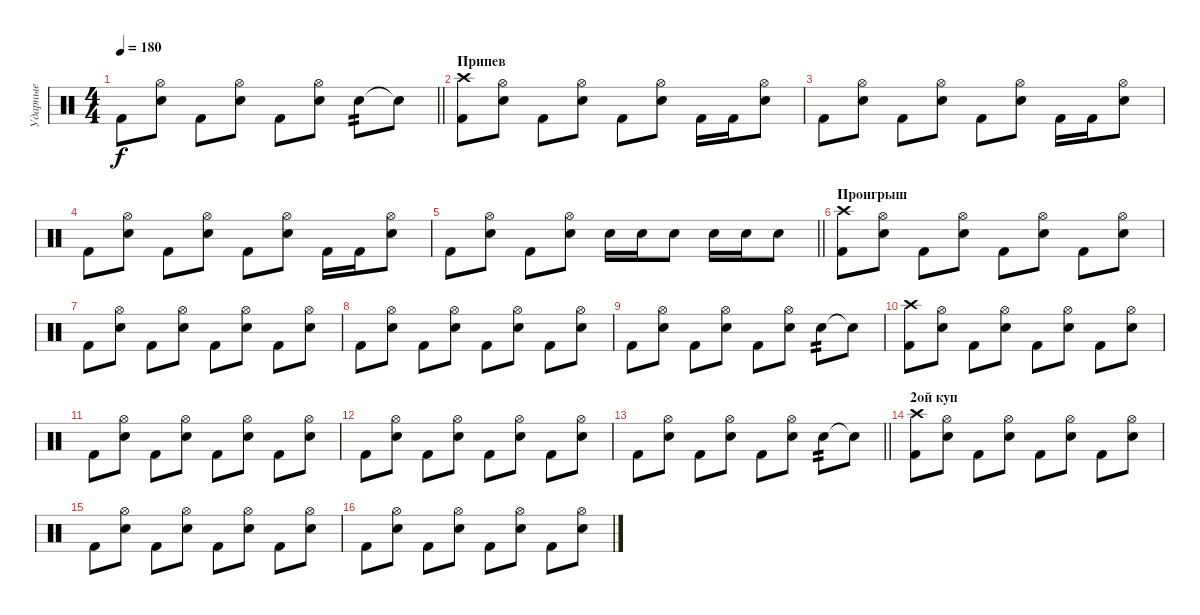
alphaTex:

\track ("Ударные" "Ударные") {instrument percussion}
\staff {score}
\articulation defaults
\ts (4 4)
\tempo 180
\clef neutral
\barLineRight lightlight
\ks c "Kick (hit) 2".8{dy f}
("Hi-Hat (open)" "Electric Snare (hit)").8 "Kick (hit) 2".8 ("Hi-Hat (open)" "Electric Snare (hit)").8 "Kick (hit) 2".8 ("Hi-Hat (open)" "Electric Snare (hit)").8 "Electric Snare (hit)".8{tp 2} "Electric Snare (hit)"{t}.8 |
\section ("" "Припев")
("Crash high (hit)" "Kick (hit) 2").8 ("Hi-Hat (open)" "Electric Snare (hit)").8 "Kick (hit) 2".8 ("Hi-Hat (open)" "Electric Snare (hit)").8 "Kick (hit) 2".8 ("Hi-Hat (open)" "Electric Snare (hit)").8 "Kick (hit) 2".16 "Kick (hit) 2".16 ("Hi-Hat (open)" "Electric Snare (hit)").8 |
"Kick (hit) 2".8 ("Hi-Hat (open)" "Electric Snare (hit)").8 "Kick (hit) 2".8 ("Hi-Hat (open)" "Electric Snare (hit)").8 "Kick (hit) 2".8 ("Hi-Hat (open)" "Electric Snare (hit)").8 "Kick (hit) 2".16 "Kick (hit) 2".16 ("Hi-Hat (open)" "Electric Snare (hit)").8 |
"Kick (hit) 2".8 ("Hi-Hat (open)" "Electric Snare (hit)").8 "Kick (hit) 2".8 ("Hi-Hat (open)" "Electric Snare (hit)").8 "Kick (hit) 2".8 ("Hi-Hat (open)" "Electric Snare (hit)").8 "Kick (hit) 2".16 "Kick (hit) 2".16 ("Hi-Hat (open)" "Electric Snare (hit)").8 |
\barLineRight lightlight "Kick (hit) 2".8
("Hi-Hat (open)" "Electric Snare (hit)").8 "Kick (hit) 2".8 ("Hi-Hat (open)" "Electric Snare (hit)").8 "Electric Snare (hit)".16 "Electric Snare (hit)".16 "Electric Snare (hit)".8 "Electric Snare (hit)".16 "Electric Snare (hit)".16 "Electric Snare (hit)".8 |
\section ("" "Проигрыш")
("Crash high (hit)" "Kick (hit) 2").8 ("Hi-Hat (open)" "Electric Snare (hit)").8 "Kick (hit) 2".8 ("Hi-Hat (open)" "Electric Snare (hit)").8 "Kick (hit) 2".8 ("Hi-Hat (open)" "Electric Snare (hit)").8 "Kick (hit) 2".8 ("Hi-Hat (open)" "Electric Snare (hit)").8 |
"Kick (hit) 2".8 ("Hi-Hat (open)" "Electric Snare (hit)").8 "Kick (hit) 2".8 ("Hi-Hat (open)" "Electric Snare (hit)").8 "Kick (hit) 2".8 ("Hi-Hat (open)" "Electric Snare (hit)").8 "Kick (hit) 2".8 ("Hi-Hat (open)" "Electric Snare (hit)").8 |
"Kick (hit) 2".8 ("Hi-Hat (open)" "Electric Snare (hit)").8 "Kick (hit) 2".8 ("Hi-Hat (open)" "Electric Snare (hit)").8 "Kick (hit) 2".8 ("Hi-Hat (open)" "Electric Snare (hit)").8 "Kick (hit) 2".8 ("Hi-Hat (open)" "Electric Snare (hit)").8 |
"Kick (hit) 2".8 ("Hi-Hat (open)" "Electric Snare (hit)").8 "Kick (hit) 2".8 ("Hi-Hat (open)" "Electric Snare (hit)").8 "Kick (hit) 2".8 ("Hi-Hat (open)" "Electric Snare (hit)").8 "Electric Snare (hit)".8{tp 2} "Electric Snare (hit)"{t}.8 |
("Crash high (hit)" "Kick (hit) 2").8 ("Hi-Hat (open)" "Electric Snare (hit)").8 "Kick (hit) 2".8 ("Hi-Hat (open)" "Electric Snare (hit)").8 "Kick (hit) 2".8 ("Hi-Hat (open)" "Electric Snare (hit)").8 "Kick (hit) 2".8 ("Hi-Hat (open)" "Electric Snare (hit)").8 |
"Kick (hit) 2".8 ("Hi-Hat (open)" "Electric Snare (hit)").8 "Kick (hit) 2".8 ("Hi-Hat (open)" "Electric Snare (hit)").8 "Kick (hit) 2".8 ("Hi-Hat (open)" "Electric Snare (hit)").8 "Kick (hit) 2".8 ("Hi-Hat (open)" "Electric Snare (hit)").8 |
"Kick (hit) 2".8 ("Hi-Hat (open)" "Electric Snare (hit)").8 "Kick (hit) 2".8 ("Hi-Hat (open)" "Electric Snare (hit)").8 "Kick (hit) 2".8 ("Hi-Hat (open)" "Electric Snare (hit)").8 "Kick (hit) 2".8 ("Hi-Hat (open)" "Electric Snare (hit)").8 |
\barLineRight lightlight "Kick (hit) 2".8
("Hi-Hat (open)" "Electric Snare (hit)").8 "Kick (hit) 2".8 ("Hi-Hat (open)" "Electric Snare (hit)").8 "Kick (hit) 2".8 ("Hi-Hat (open)" "Electric Snare (hit)").8 "Electric Snare (hit)".8{tp 2} "Electric Snare (hit)"{t}.8 |
\section ("" "2ой куп")
("Crash high (hit)" "Kick (hit) 2").8 ("Hi-Hat (open)" "Electric Snare (hit)").8 "Kick (hit) 2".8 ("Hi-Hat (open)" "Electric Snare (hit)").8 "Kick (hit) 2".8 ("Hi-Hat (open)" "Electric Snare (hit)").8 "Kick (hit) 2".8 ("Hi-Hat (open)" "Electric Snare (hit)").8 |
"Kick (hit) 2".8 ("Hi-Hat (open)" "Electric Snare (hit)").8 "Kick (hit) 2".8 ("Hi-Hat (open)" "Electric Snare (hit)").8 "Kick (hit) 2".8 ("Hi-Hat (open)" "Electric Snare (hit)").8 "Kick (hit) 2".8 ("Hi-Hat (open)" "Electric Snare (hit)").8 |
"Kick (hit) 2".8 ("Hi-Hat (open)" "Electric Snare (hit)").8 "Kick (hit) 2".8 ("Hi-Hat (open)" "Electric Snare (hit)").8 "Kick (hit) 2".8 ("Hi-Hat (open)" "Electric Snare (hit)").8 "Kick (hit) 2".8 ("Hi-Hat (open)" "Electric Snare (hit)").8
